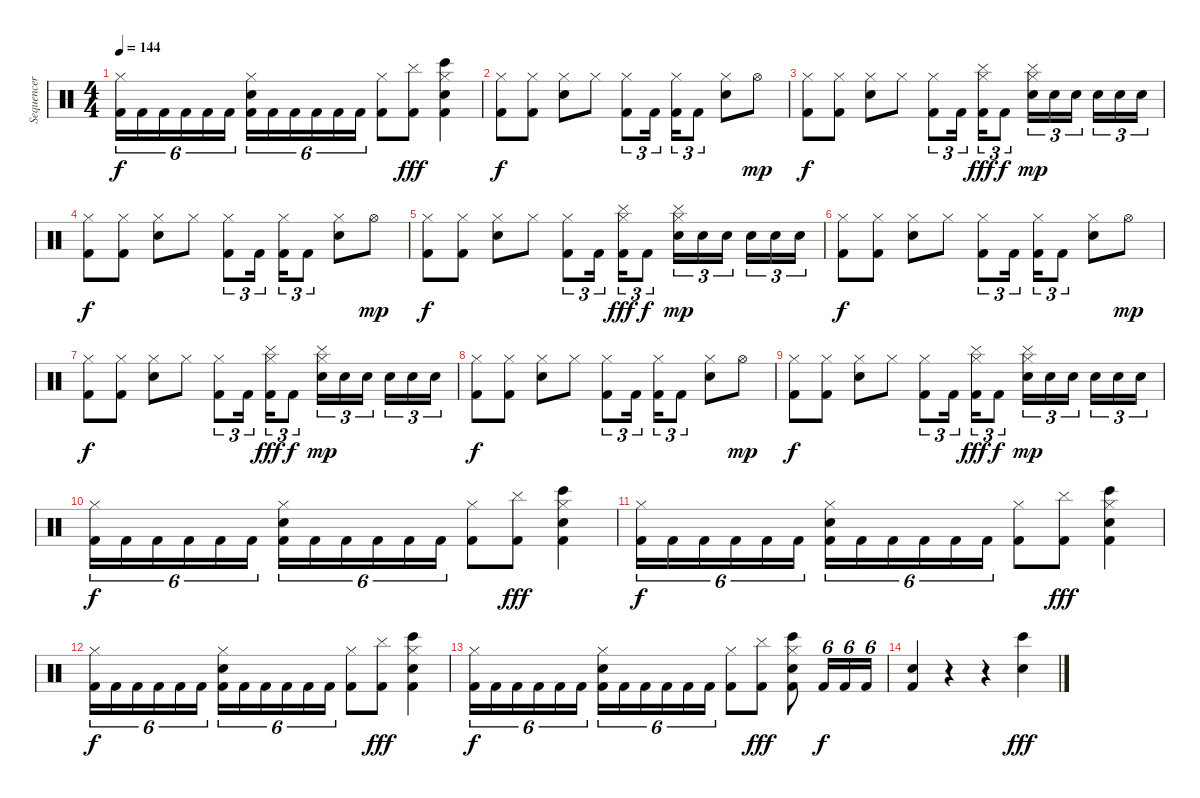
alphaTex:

\track ("Sequencer" "Sequencer") {instrument percussion}
\staff {score}
\articulation defaults
\ts (4 4)
\tempo 144
\clef neutral
\ks c
("Hi-Hat (closed)" "Kick (hit) 2").16{tu (6 4) dy f} "Kick (hit) 2".16{tu (6 4)} "Kick (hit) 2".16{tu (6 4)} "Kick (hit) 2".16{tu (6 4)} "Kick (hit) 2".16{tu (6 4)} "Kick (hit) 2".16{tu (6 4)} ("Hi-Hat (closed)" "Electric Snare (hit)" "Kick (hit) 2").16{tu (6 4)} "Kick (hit) 2".16{tu (6 4)} "Kick (hit) 2".16{tu (6 4)} "Kick (hit) 2".16{tu (6 4)} "Kick (hit) 2".16{tu (6 4)} "Kick (hit) 2".16{tu (6 4)} ("Hi-Hat (closed)" "Kick (hit) 2").8 ("Cymbal (hit)" "Kick (hit) 2").8{dy fff} ("Hi-Hat (closed)" "Electric Snare (hit)" "Bongo High (hit)" "Kick (hit) 2").4 |
("Hi-Hat (closed)" "Kick (hit) 2").8{dy f} ("Hi-Hat (closed)" "Kick (hit) 2").8 ("Hi-Hat (closed)" "Electric Snare (hit)").8 "Hi-Hat (closed)".8 ("Hi-Hat (closed)" "Kick (hit) 2").8{tu (3 2)} "Kick (hit) 2".16{tu (3 2)} ("Hi-Hat (closed)" "Kick (hit) 2").16{tu (3 2)} "Kick (hit) 2".8{tu (3 2)} ("Hi-Hat (closed)" "Electric Snare (hit)").8 "Hi-Hat (open)".8{dy mp} |
("Hi-Hat (closed)" "Kick (hit) 2").8{dy f} ("Hi-Hat (closed)" "Kick (hit) 2").8 ("Hi-Hat (closed)" "Electric Snare (hit)").8 "Hi-Hat (closed)".8 ("Hi-Hat (closed)" "Kick (hit) 2").8{tu (3 2)} "Kick (hit) 2".16{tu (3 2)} ("Hi-Hat (closed)" "Cymbal (hit)" "Kick (hit) 2").16{tu (3 2) dy fff} "Kick (hit) 2".8{tu (3 2) dy f} ("Hi-Hat (closed)" "Cymbal (hit)" "Electric Snare (hit)").16{tu (3 2) dy mp} "Electric Snare (hit)".16{tu (3 2)} "Electric Snare (hit)".16{tu (3 2)} "Electric Snare (hit)".16{tu (3 2)} "Electric Snare (hit)".16{tu (3 2)} "Electric Snare (hit)".16{tu (3 2)} |
("Hi-Hat (closed)" "Kick (hit) 2").8{dy f} ("Hi-Hat (closed)" "Kick (hit) 2").8 ("Hi-Hat (closed)" "Electric Snare (hit)").8 "Hi-Hat (closed)".8 ("Hi-Hat (closed)" "Kick (hit) 2").8{tu (3 2)} "Kick (hit) 2".16{tu (3 2)} ("Hi-Hat (closed)" "Kick (hit) 2").16{tu (3 2)} "Kick (hit) 2".8{tu (3 2)} ("Hi-Hat (closed)" "Electric Snare (hit)").8 "Hi-Hat (open)".8{dy mp} |
("Hi-Hat (closed)" "Kick (hit) 2").8{dy f} ("Hi-Hat (closed)" "Kick (hit) 2").8 ("Hi-Hat (closed)" "Electric Snare (hit)").8 "Hi-Hat (closed)".8 ("Hi-Hat (closed)" "Kick (hit) 2").8{tu (3 2)} "Kick (hit) 2".16{tu (3 2)} ("Hi-Hat (closed)" "Cymbal (hit)" "Kick (hit) 2").16{tu (3 2) dy fff} "Kick (hit) 2".8{tu (3 2) dy f} ("Hi-Hat (closed)" "Cymbal (hit)" "Electric Snare (hit)").16{tu (3 2) dy mp} "Electric Snare (hit)".16{tu (3 2)} "Electric Snare (hit)".16{tu (3 2)} "Electric Snare (hit)".16{tu (3 2)} "Electric Snare (hit)".16{tu (3 2)} "Electric Snare (hit)".16{tu (3 2)} |
("Hi-Hat (closed)" "Kick (hit) 2").8{dy f} ("Hi-Hat (closed)" "Kick (hit) 2").8 ("Hi-Hat (closed)" "Electric Snare (hit)").8 "Hi-Hat (closed)".8 ("Hi-Hat (closed)" "Kick (hit) 2").8{tu (3 2)} "Kick (hit) 2".16{tu (3 2)} ("Hi-Hat (closed)" "Kick (hit) 2").16{tu (3 2)} "Kick (hit) 2".8{tu (3 2)} ("Hi-Hat (closed)" "Electric Snare (hit)").8 "Hi-Hat (open)".8{dy mp} |
("Hi-Hat (closed)" "Kick (hit) 2").8{dy f} ("Hi-Hat (closed)" "Kick (hit) 2").8 ("Hi-Hat (closed)" "Electric Snare (hit)").8 "Hi-Hat (closed)".8 ("Hi-Hat (closed)" "Kick (hit) 2").8{tu (3 2)} "Kick (hit) 2".16{tu (3 2)} ("Hi-Hat (closed)" "Cymbal (hit)" "Kick (hit) 2").16{tu (3 2) dy fff} "Kick (hit) 2".8{tu (3 2) dy f} ("Hi-Hat (closed)" "Cymbal (hit)" "Electric Snare (hit)").16{tu (3 2) dy mp} "Electric Snare (hit)".16{tu (3 2)} "Electric Snare (hit)".16{tu (3 2)} "Electric Snare (hit)".16{tu (3 2)} "Electric Snare (hit)".16{tu (3 2)} "Electric Snare (hit)".16{tu (3 2)} |
("Hi-Hat (closed)" "Kick (hit) 2").8{dy f} ("Hi-Hat (closed)" "Kick (hit) 2").8 ("Hi-Hat (closed)" "Electric Snare (hit)").8 "Hi-Hat (closed)".8 ("Hi-Hat (closed)" "Kick (hit) 2").8{tu (3 2)} "Kick (hit) 2".16{tu (3 2)} ("Hi-Hat (closed)" "Kick (hit) 2").16{tu (3 2)} "Kick (hit) 2".8{tu (3 2)} ("Hi-Hat (closed)" "Electric Snare (hit)").8 "Hi-Hat (open)".8{dy mp} |
("Hi-Hat (closed)" "Kick (hit) 2").8{dy f} ("Hi-Hat (closed)" "Kick (hit) 2").8 ("Hi-Hat (closed)" "Electric Snare (hit)").8 "Hi-Hat (closed)".8 ("Hi-Hat (closed)" "Kick (hit) 2").8{tu (3 2)} "Kick (hit) 2".16{tu (3 2)} ("Hi-Hat (closed)" "Cymbal (hit)" "Kick (hit) 2").16{tu (3 2) dy fff} "Kick (hit) 2".8{tu (3 2) dy f} ("Hi-Hat (closed)" "Cymbal (hit)" "Electric Snare (hit)").16{tu (3 2) dy mp} "Electric Snare (hit)".16{tu (3 2)} "Electric Snare (hit)".16{tu (3 2)} "Electric Snare (hit)".16{tu (3 2)} "Electric Snare (hit)".16{tu (3 2)} "Electric Snare (hit)".16{tu (3 2)} |
("Hi-Hat (closed)" "Kick (hit) 2").16{tu (6 4) dy f} "Kick (hit) 2".16{tu (6 4)} "Kick (hit) 2".16{tu (6 4)} "Kick (hit) 2".16{tu (6 4)} "Kick (hit) 2".16{tu (6 4)} "Kick (hit) 2".16{tu (6 4)} ("Hi-Hat (closed)" "Electric Snare (hit)" "Kick (hit) 2").16{tu (6 4)} "Kick (hit) 2".16{tu (6 4)} "Kick (hit) 2".16{tu (6 4)} "Kick (hit) 2".16{tu (6 4)} "Kick (hit) 2".16{tu (6 4)} "Kick (hit) 2".16{tu (6 4)} ("Hi-Hat (closed)" "Kick (hit) 2").8 ("Cymbal (hit)" "Kick (hit) 2").8{dy fff} ("Hi-Hat (closed)" "Electric Snare (hit)" "Bongo High (hit)" "Kick (hit) 2").4 |
("Hi-Hat (closed)" "Kick (hit) 2").16{tu (6 4) dy f} "Kick (hit) 2".16{tu (6 4)} "Kick (hit) 2".16{tu (6 4)} "Kick (hit) 2".16{tu (6 4)} "Kick (hit) 2".16{tu (6 4)} "Kick (hit) 2".16{tu (6 4)} ("Hi-Hat (closed)" "Electric Snare (hit)" "Kick (hit) 2").16{tu (6 4)} "Kick (hit) 2".16{tu (6 4)} "Kick (hit) 2".16{tu (6 4)} "Kick (hit) 2".16{tu (6 4)} "Kick (hit) 2".16{tu (6 4)} "Kick (hit) 2".16{tu (6 4)} ("Hi-Hat (closed)" "Kick (hit) 2").8 ("Cymbal (hit)" "Kick (hit) 2").8{dy fff} ("Hi-Hat (closed)" "Electric Snare (hit)" "Bongo High (hit)" "Kick (hit) 2").4 |
("Hi-Hat (closed)" "Kick (hit) 2").16{tu (6 4) dy f} "Kick (hit) 2".16{tu (6 4)} "Kick (hit) 2".16{tu (6 4)} "Kick (hit) 2".16{tu (6 4)} "Kick (hit) 2".16{tu (6 4)} "Kick (hit) 2".16{tu (6 4)} ("Hi-Hat (closed)" "Electric Snare (hit)" "Kick (hit) 2").16{tu (6 4)} "Kick (hit) 2".16{tu (6 4)} "Kick (hit) 2".16{tu (6 4)} "Kick (hit) 2".16{tu (6 4)} "Kick (hit) 2".16{tu (6 4)} "Kick (hit) 2".16{tu (6 4)} ("Hi-Hat (closed)" "Kick (hit) 2").8 ("Cymbal (hit)" "Kick (hit) 2").8{dy fff} ("Hi-Hat (closed)" "Electric Snare (hit)" "Bongo High (hit)" "Kick (hit) 2").4 |
("Hi-Hat (closed)" "Kick (hit) 2").16{tu (6 4) dy f} "Kick (hit) 2".16{tu (6 4)} "Kick (hit) 2".16{tu (6 4)} "Kick (hit) 2".16{tu (6 4)} "Kick (hit) 2".16{tu (6 4)} "Kick (hit) 2".16{tu (6 4)} ("Hi-Hat (closed)" "Electric Snare (hit)" "Kick (hit) 2").16{tu (6 4)} "Kick (hit) 2".16{tu (6 4)} "Kick (hit) 2".16{tu (6 4)} "Kick (hit) 2".16{tu (6 4)} "Kick (hit) 2".16{tu (6 4)} "Kick (hit) 2".16{tu (6 4)} ("Hi-Hat (closed)" "Kick (hit) 2").8 ("Cymbal (hit)" "Kick (hit) 2").8{dy fff} ("Hi-Hat (closed)" "Electric Snare (hit)" "Bongo High (hit)" "Kick (hit) 2").8 "Kick (hit) 2".16{tu (6 4) dy f} "Kick (hit) 2".16{tu (6 4)} "Kick (hit) 2".16{tu (6 4)} |
("Electric Snare (hit)" "Kick (hit) 2").4 r.4 r.4 ("Bongo High (hit)" "Electric Snare (hit)").4{dy fff}
